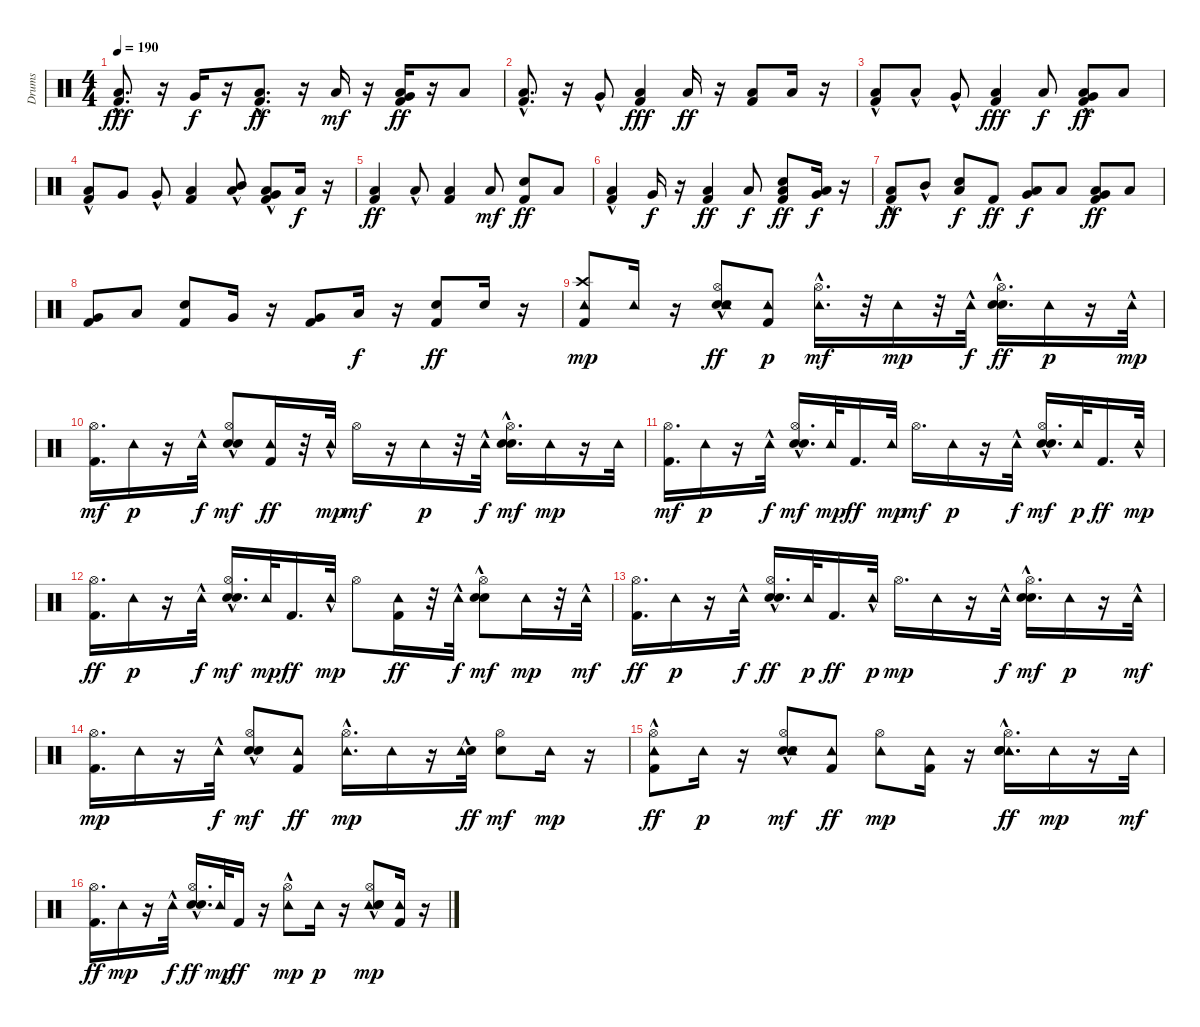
\track ("Drums" "Drums") {instrument percussion}
\staff {score}
\articulation defaults
\ts (4 4)
\tempo 190
\clef neutral
\ks c
("Low Tom (hit)"{hac} "Kick (hit) 2"{hac}).8{d dy fff} r.16 "Very Low Tom (hit)".16{dy f} r.16 ("Kick (hit) 2"{hac} "Low Tom (hit)"{hac}).8{d dy ff} r.16 "Low Tom (hit)".16{dy mf} r.16 ("Very Low Tom (hit)" "Low Floor Tom (hit)" "Kick (hit) 2").16{dy ff} r.16 "Low Tom (hit)".8 |
("Low Tom (hit)"{hac} "Kick (hit) 2"{hac}).8{d} r.16 "Very Low Tom (hit)"{hac}.8 ("Low Tom (hit)" "Kick (hit) 2").4{dy fff} "Low Tom (hit)".16{dy ff} r.16 ("Low Tom (hit)" "Kick (hit) 2").8 "Low Floor Tom (hit)".16 r.16 |
("Low Tom (hit)"{hac} "Kick (hit) 2"{hac}).8 "Low Floor Tom (hit)"{hac}.8 "Very Low Tom (hit)"{hac}.8 ("Low Tom (hit)" "Kick (hit) 2").4{dy fff} "Low Tom (hit)".8{dy f} ("Low Floor Tom (hit)"{hac} "Very Low Tom (hit)"{hac} "Kick (hit) 2").8{dy ff} "Low Tom (hit)".8 |
("Kick (hit) 2"{hac} "Low Tom (hit)").8 "Very Low Tom (hit)".8 "Very Low Tom (hit)"{hac}.8 ("Kick (hit) 2" "Low Tom (hit)").4 ("Low Tom (hit)" "Mid Tom (hit)"{hac}).8 ("Low Floor Tom (hit)"{hac} "Very Low Tom (hit)"{hac} "Kick (hit) 2").8 "Low Tom (hit)".16{dy f} r.16 |
("Kick (hit) 2" "Low Tom (hit)").4{dy ff} "Low Floor Tom (hit)"{hac}.8 ("Kick (hit) 2" "Low Tom (hit)").4 "Low Tom (hit)".8{dy mf} ("Kick (hit) 2" "Electric Snare (hit)").8{dy ff} "Low Tom (hit)".8 |
("Kick (hit) 2" "Low Tom (hit)"{hac}).4 "Very Low Tom (hit)".16{dy f} r.16 ("Kick (hit) 2" "Low Tom (hit)").4{dy ff} "Low Tom (hit)".8{dy f} ("Kick (hit) 2" "Snare (hit) 2" "Low Floor Tom (hit)").8{dy ff} ("Low Tom (hit)" "Very Low Tom (hit)").16{dy f} r.16 |
("Kick (hit) 2" "Low Tom (hit)"{hac}).8{dy ff} "Mid Tom (hit)"{hac}.8 ("Snare (hit) 2" "Low Tom (hit)").8{dy f} "Kick (hit) 2".8{dy ff} ("Low Tom (hit)" "Very Low Tom (hit)").8{dy f} "Low Tom (hit)".8 ("Kick (hit) 2" "Low Floor Tom (hit)" "Very Low Tom (hit)").8{dy ff} "Low Tom (hit)".8 |
("Kick (hit) 2" "Very Low Tom (hit)").8 "Low Floor Tom (hit)".8 ("Kick (hit) 2" "Snare (hit) 2").8 "Very Low Tom (hit)".16 r.16 ("Kick (hit) 2" "Very Low Tom (hit)").8 "Low Floor Tom (hit)".16{dy f} r.16 ("Kick (hit) 2" "Snare (hit) 2").8{dy ff} "Electric Snare (hit)".16 r.16 |
("Kick (hit) 2" "Crash high (hit)" "Tambourine (hit)").8{dy mp} "Tambourine (hit)".16 r.16 ("Snare (hit) 2" "Hi-Hat (open)" "Tambourine (hit)"{hac} "Hand Clap (hit)"{hac}).8{dy ff} ("Kick (hit) 2" "Tambourine (hit)").8{dy p} ("Tambourine (hit)"{hac} "Hi-Hat (open)").16{d dy mf} r.32 "Tambourine (hit)".16{dy mp} r.32 "Tambourine (hit)"{hac}.32{dy f} ("Snare (hit) 2" "Hi-Hat (open)" "Hand Clap (hit)"{hac}).16{d dy ff} "Tambourine (hit)".16{dy p} r.16 "Tambourine (hit)"{hac}.32{dy mp} |
("Kick (hit) 2" "Hi-Hat (open)").16{d dy mf} "Tambourine (hit)".16{dy p} r.16 "Tambourine (hit)"{hac}.32{dy f} ("Hand Clap (hit)"{hac} "Snare (hit) 2" "Hi-Hat (open)").8{dy mf} ("Tambourine (hit)" "Kick (hit) 2").16{dy ff} r.32 "Tambourine (hit)"{hac}.32{dy mp} "Hi-Hat (open)".16{dy mf} r.16 "Tambourine (hit)".16{dy p} r.32 "Tambourine (hit)"{hac}.32{dy f} ("Hand Clap (hit)"{hac} "Snare (hit) 2" "Hi-Hat (open)").16{d dy mf} "Tambourine (hit)".16{dy mp} r.16 "Tambourine (hit)".32 |
("Kick (hit) 2" "Hi-Hat (open)").16{d dy mf} "Tambourine (hit)".16{dy p} r.16 "Tambourine (hit)"{hac}.32{dy f} ("Hand Clap (hit)"{hac} "Snare (hit) 2" "Hi-Hat (open)").16{d dy mf} "Tambourine (hit)".32{dy mp} "Kick (hit) 2".16{d dy ff} "Tambourine (hit)".32{dy mp} "Hi-Hat (open)".16{d dy mf} "Tambourine (hit)".16{dy p} r.16 "Tambourine (hit)"{hac}.32{dy f} ("Hand Clap (hit)"{hac} "Snare (hit) 2" "Hi-Hat (open)").16{d dy mf} "Tambourine (hit)".32{dy p} "Kick (hit) 2".16{d dy ff} "Tambourine (hit)"{hac}.32{dy mp} |
("Hi-Hat (open)" "Kick (hit) 2").16{d dy ff} "Tambourine (hit)".16{dy p} r.16 "Tambourine (hit)"{hac}.32{dy f} ("Hand Clap (hit)"{hac} "Snare (hit) 2" "Hi-Hat (open)").16{d dy mf} "Tambourine (hit)".32{dy mp} "Kick (hit) 2".16{d dy ff} "Tambourine (hit)"{hac}.32{dy mp} "Hi-Hat (open)".8 ("Tambourine (hit)" "Kick (hit) 2").16{dy ff} r.32 "Tambourine (hit)"{hac}.32{dy f} ("Hand Clap (hit)"{hac} "Snare (hit) 2" "Hi-Hat (open)").8{dy mf} "Tambourine (hit)".16{dy mp} r.32 "Tambourine (hit)"{hac}.32{dy mf} |
("Hi-Hat (open)" "Kick (hit) 2").16{d dy ff} "Tambourine (hit)".16{dy p} r.16 "Tambourine (hit)"{hac}.32{dy f} ("Hand Clap (hit)"{hac} "Hi-Hat (open)" "Snare (hit) 2").16{d dy ff} "Tambourine (hit)".32{dy p} "Kick (hit) 2".16{d dy ff} "Tambourine (hit)"{hac}.32{dy p} "Hi-Hat (open)".16{d dy mp} "Tambourine (hit)".16 r.16 "Tambourine (hit)"{hac}.32{dy f} ("Hand Clap (hit)"{hac} "Snare (hit) 2" "Hi-Hat (open)").16{d dy mf} "Tambourine (hit)".16{dy p} r.16 "Tambourine (hit)"{hac}.32{dy mf} |
("Kick (hit) 2" "Hi-Hat (open)").16{d dy mp} "Tambourine (hit)".16 r.16 "Tambourine (hit)"{hac}.32{dy f} ("Hand Clap (hit)"{hac} "Snare (hit) 2" "Hi-Hat (open)").8{dy mf} ("Tambourine (hit)" "Kick (hit) 2").8{dy ff} ("Tambourine (hit)"{hac} "Hi-Hat (open)").16{d dy mp} "Tambourine (hit)".16 r.16 ("Hand Clap (hit)"{hac} "Tambourine (hit)"{hac}).32{dy ff} ("Snare (hit) 2" "Hi-Hat (open)").8{dy mf} "Tambourine (hit)".16{dy mp} r.16 |
("Tambourine (hit)"{hac} "Hi-Hat (open)" "Kick (hit) 2").8{dy ff} "Tambourine (hit)".16{dy p} r.16 ("Hand Clap (hit)"{hac} "Hi-Hat (open)" "Tambourine (hit)"{hac} "Snare (hit) 2").8{dy mf} ("Tambourine (hit)" "Kick (hit) 2").8{dy ff} ("Tambourine (hit)" "Hi-Hat (open)").8{dy mp} ("Tambourine (hit)" "Kick (hit) 2").16 r.16 ("Tambourine (hit)"{hac} "Hand Clap (hit)"{hac} "Hi-Hat (open)" "Snare (hit) 2").16{d dy ff} "Tambourine (hit)".16{dy mp} r.16 "Tambourine (hit)".32{dy mf} |
("Hi-Hat (open)" "Kick (hit) 2").16{d dy ff} "Tambourine (hit)".16{dy mp} r.16 "Tambourine (hit)"{hac}.32{dy f} ("Hand Clap (hit)"{hac} "Hi-Hat (open)" "Snare (hit) 2").16{d dy ff} "Tambourine (hit)".32{dy mp} "Kick (hit) 2".16{dy ff} r.16 ("Tambourine (hit)"{hac} "Hi-Hat (open)").8{dy mp} "Tambourine (hit)".16{dy p} r.16 ("Tambourine (hit)"{hac} "Hand Clap (hit)"{hac} "Snare (hit) 2" "Hi-Hat (open)").8{dy mp} ("Kick (hit) 2" "Tambourine (hit)").16 r.16
